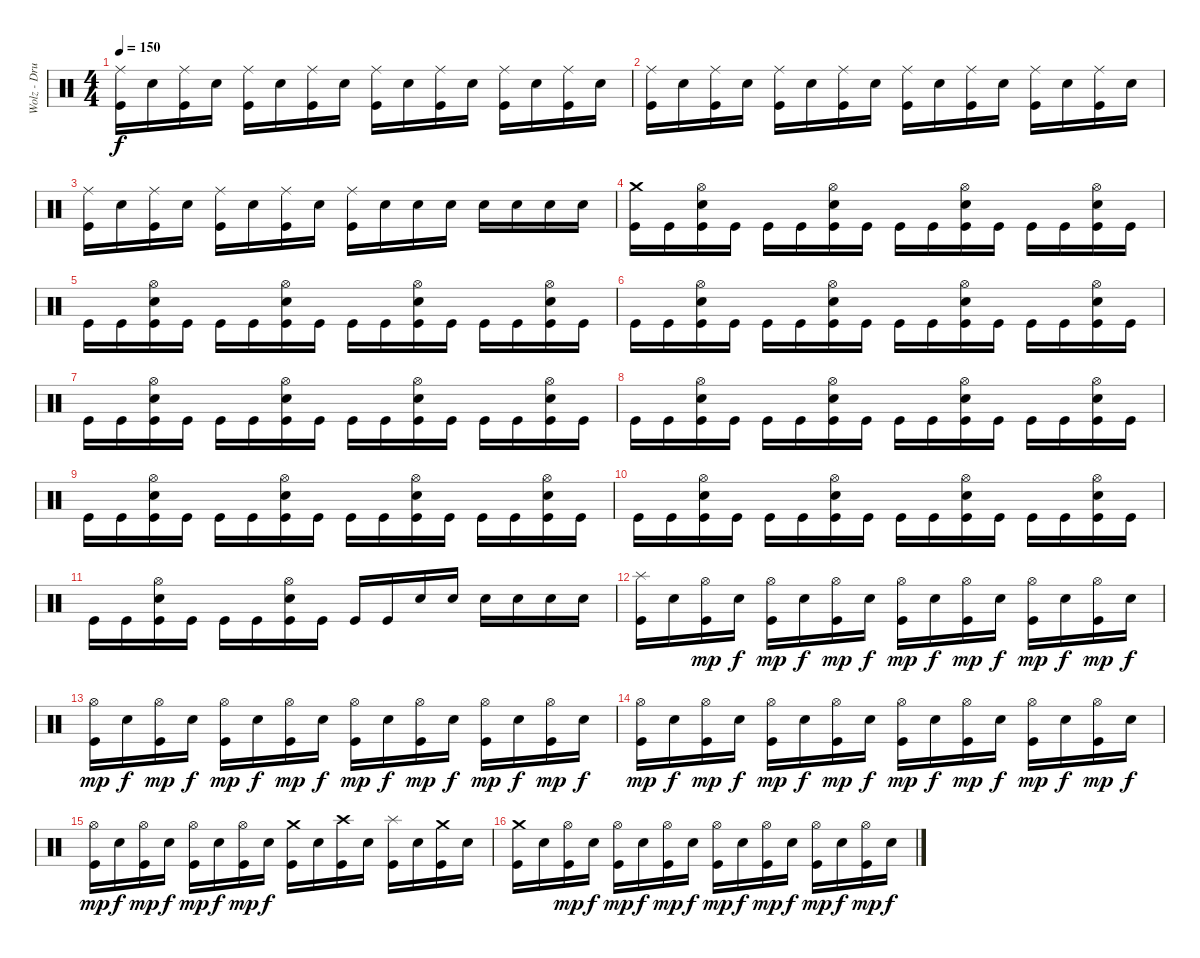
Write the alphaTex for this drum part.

\track ("Wolz - Drums" "Wolz - Dru") {instrument percussion}
\staff {score}
\articulation defaults
\ts (4 4)
\tempo 150
\clef neutral
\ks c
("Ride (middle)" "Kick (hit)").16{dy f} "Electric Snare (hit)".16 ("Ride (middle)" "Kick (hit)").16 "Electric Snare (hit)".16 ("Ride (middle)" "Kick (hit)").16 "Electric Snare (hit)".16 ("Ride (middle)" "Kick (hit)").16 "Electric Snare (hit)".16 ("Ride (middle)" "Kick (hit)").16 "Electric Snare (hit)".16 ("Ride (middle)" "Kick (hit)").16 "Electric Snare (hit)".16 ("Ride (middle)" "Kick (hit)").16 "Electric Snare (hit)".16 ("Ride (middle)" "Kick (hit)").16 "Electric Snare (hit)".16 |
("Ride (middle)" "Kick (hit)").16 "Electric Snare (hit)".16 ("Ride (middle)" "Kick (hit)").16 "Electric Snare (hit)".16 ("Ride (middle)" "Kick (hit)").16 "Electric Snare (hit)".16 ("Ride (middle)" "Kick (hit)").16 "Electric Snare (hit)".16 ("Ride (middle)" "Kick (hit)").16 "Electric Snare (hit)".16 ("Ride (middle)" "Kick (hit)").16 "Electric Snare (hit)".16 ("Ride (middle)" "Kick (hit)").16 "Electric Snare (hit)".16 ("Ride (middle)" "Kick (hit)").16 "Electric Snare (hit)".16 |
("Ride (middle)" "Kick (hit)").16 "Electric Snare (hit)".16 ("Ride (middle)" "Kick (hit)").16 "Electric Snare (hit)".16 ("Ride (middle)" "Kick (hit)").16 "Electric Snare (hit)".16 ("Ride (middle)" "Kick (hit)").16 "Electric Snare (hit)".16 ("Ride (middle)" "Kick (hit)").16 "Electric Snare (hit)".16 "Electric Snare (hit)".16 "Electric Snare (hit)".16 "Electric Snare (hit)".16 "Electric Snare (hit)".16 "Electric Snare (hit)".16 "Electric Snare (hit)".16 |
("Crash medium (hit)" "Kick (hit)").16 "Kick (hit)".16 ("Hi-Hat (open)" "Electric Snare (hit)" "Kick (hit)").16 "Kick (hit)".16 "Kick (hit)".16 "Kick (hit)".16 ("Hi-Hat (open)" "Electric Snare (hit)" "Kick (hit)").16 "Kick (hit)".16 "Kick (hit)".16 "Kick (hit)".16 ("Hi-Hat (open)" "Electric Snare (hit)" "Kick (hit)").16 "Kick (hit)".16 "Kick (hit)".16 "Kick (hit)".16 ("Hi-Hat (open)" "Electric Snare (hit)" "Kick (hit)").16 "Kick (hit)".16 |
"Kick (hit)".16 "Kick (hit)".16 ("Hi-Hat (open)" "Electric Snare (hit)" "Kick (hit)").16 "Kick (hit)".16 "Kick (hit)".16 "Kick (hit)".16 ("Hi-Hat (open)" "Electric Snare (hit)" "Kick (hit)").16 "Kick (hit)".16 "Kick (hit)".16 "Kick (hit)".16 ("Hi-Hat (open)" "Electric Snare (hit)" "Kick (hit)").16 "Kick (hit)".16 "Kick (hit)".16 "Kick (hit)".16 ("Hi-Hat (open)" "Electric Snare (hit)" "Kick (hit)").16 "Kick (hit)".16 |
"Kick (hit)".16 "Kick (hit)".16 ("Hi-Hat (open)" "Electric Snare (hit)" "Kick (hit)").16 "Kick (hit)".16 "Kick (hit)".16 "Kick (hit)".16 ("Hi-Hat (open)" "Electric Snare (hit)" "Kick (hit)").16 "Kick (hit)".16 "Kick (hit)".16 "Kick (hit)".16 ("Hi-Hat (open)" "Electric Snare (hit)" "Kick (hit)").16 "Kick (hit)".16 "Kick (hit)".16 "Kick (hit)".16 ("Hi-Hat (open)" "Electric Snare (hit)" "Kick (hit)").16 "Kick (hit)".16 |
"Kick (hit)".16 "Kick (hit)".16 ("Hi-Hat (open)" "Electric Snare (hit)" "Kick (hit)").16 "Kick (hit)".16 "Kick (hit)".16 "Kick (hit)".16 ("Hi-Hat (open)" "Electric Snare (hit)" "Kick (hit)").16 "Kick (hit)".16 "Kick (hit)".16 "Kick (hit)".16 ("Hi-Hat (open)" "Electric Snare (hit)" "Kick (hit)").16 "Kick (hit)".16 "Kick (hit)".16 "Kick (hit)".16 ("Hi-Hat (open)" "Electric Snare (hit)" "Kick (hit)").16 "Kick (hit)".16 |
"Kick (hit)".16 "Kick (hit)".16 ("Hi-Hat (open)" "Electric Snare (hit)" "Kick (hit)").16 "Kick (hit)".16 "Kick (hit)".16 "Kick (hit)".16 ("Hi-Hat (open)" "Electric Snare (hit)" "Kick (hit)").16 "Kick (hit)".16 "Kick (hit)".16 "Kick (hit)".16 ("Hi-Hat (open)" "Electric Snare (hit)" "Kick (hit)").16 "Kick (hit)".16 "Kick (hit)".16 "Kick (hit)".16 ("Hi-Hat (open)" "Electric Snare (hit)" "Kick (hit)").16 "Kick (hit)".16 |
"Kick (hit)".16 "Kick (hit)".16 ("Hi-Hat (open)" "Electric Snare (hit)" "Kick (hit)").16 "Kick (hit)".16 "Kick (hit)".16 "Kick (hit)".16 ("Hi-Hat (open)" "Electric Snare (hit)" "Kick (hit)").16 "Kick (hit)".16 "Kick (hit)".16 "Kick (hit)".16 ("Hi-Hat (open)" "Electric Snare (hit)" "Kick (hit)").16 "Kick (hit)".16 "Kick (hit)".16 "Kick (hit)".16 ("Hi-Hat (open)" "Electric Snare (hit)" "Kick (hit)").16 "Kick (hit)".16 |
"Kick (hit)".16 "Kick (hit)".16 ("Hi-Hat (open)" "Electric Snare (hit)" "Kick (hit)").16 "Kick (hit)".16 "Kick (hit)".16 "Kick (hit)".16 ("Hi-Hat (open)" "Electric Snare (hit)" "Kick (hit)").16 "Kick (hit)".16 "Kick (hit)".16 "Kick (hit)".16 ("Hi-Hat (open)" "Electric Snare (hit)" "Kick (hit)").16 "Kick (hit)".16 "Kick (hit)".16 "Kick (hit)".16 ("Hi-Hat (open)" "Electric Snare (hit)" "Kick (hit)").16 "Kick (hit)".16 |
"Kick (hit)".16 "Kick (hit)".16 ("Hi-Hat (open)" "Electric Snare (hit)" "Kick (hit)").16 "Kick (hit)".16 "Kick (hit)".16 "Kick (hit)".16 ("Hi-Hat (open)" "Electric Snare (hit)" "Kick (hit)").16 "Kick (hit)".16 "Kick (hit)".16 "Kick (hit)".16 "Electric Snare (hit)".16 "Electric Snare (hit)".16 "Electric Snare (hit)".16 "Electric Snare (hit)".16 "Electric Snare (hit)".16 "Electric Snare (hit)".16 |
("Splash (hit)" "Kick (hit)").16 "Electric Snare (hit)".16 ("Hi-Hat (open)" "Kick (hit)").16{dy mp} "Electric Snare (hit)".16{dy f} ("Hi-Hat (open)" "Kick (hit)").16{dy mp} "Electric Snare (hit)".16{dy f} ("Hi-Hat (open)" "Kick (hit)").16{dy mp} "Electric Snare (hit)".16{dy f} ("Hi-Hat (open)" "Kick (hit)").16{dy mp} "Electric Snare (hit)".16{dy f} ("Hi-Hat (open)" "Kick (hit)").16{dy mp} "Electric Snare (hit)".16{dy f} ("Hi-Hat (open)" "Kick (hit)").16{dy mp} "Electric Snare (hit)".16{dy f} ("Hi-Hat (open)" "Kick (hit)").16{dy mp} "Electric Snare (hit)".16{dy f} |
("Hi-Hat (open)" "Kick (hit)").16{dy mp} "Electric Snare (hit)".16{dy f} ("Hi-Hat (open)" "Kick (hit)").16{dy mp} "Electric Snare (hit)".16{dy f} ("Hi-Hat (open)" "Kick (hit)").16{dy mp} "Electric Snare (hit)".16{dy f} ("Hi-Hat (open)" "Kick (hit)").16{dy mp} "Electric Snare (hit)".16{dy f} ("Hi-Hat (open)" "Kick (hit)").16{dy mp} "Electric Snare (hit)".16{dy f} ("Hi-Hat (open)" "Kick (hit)").16{dy mp} "Electric Snare (hit)".16{dy f} ("Hi-Hat (open)" "Kick (hit)").16{dy mp} "Electric Snare (hit)".16{dy f} ("Hi-Hat (open)" "Kick (hit)").16{dy mp} "Electric Snare (hit)".16{dy f} |
("Hi-Hat (open)" "Kick (hit)").16{dy mp} "Electric Snare (hit)".16{dy f} ("Hi-Hat (open)" "Kick (hit)").16{dy mp} "Electric Snare (hit)".16{dy f} ("Hi-Hat (open)" "Kick (hit)").16{dy mp} "Electric Snare (hit)".16{dy f} ("Hi-Hat (open)" "Kick (hit)").16{dy mp} "Electric Snare (hit)".16{dy f} ("Hi-Hat (open)" "Kick (hit)").16{dy mp} "Electric Snare (hit)".16{dy f} ("Hi-Hat (open)" "Kick (hit)").16{dy mp} "Electric Snare (hit)".16{dy f} ("Hi-Hat (open)" "Kick (hit)").16{dy mp} "Electric Snare (hit)".16{dy f} ("Hi-Hat (open)" "Kick (hit)").16{dy mp} "Electric Snare (hit)".16{dy f} |
("Hi-Hat (open)" "Kick (hit)").16{dy mp} "Electric Snare (hit)".16{dy f} ("Hi-Hat (open)" "Kick (hit)").16{dy mp} "Electric Snare (hit)".16{dy f} ("Hi-Hat (open)" "Kick (hit)").16{dy mp} "Electric Snare (hit)".16{dy f} ("Hi-Hat (open)" "Kick (hit)").16{dy mp} "Electric Snare (hit)".16{dy f} ("Crash medium (hit)" "Kick (hit)").16 "Electric Snare (hit)".16 ("Crash high (hit)" "Kick (hit)").16 "Electric Snare (hit)".16 ("Splash (hit)" "Kick (hit)").16 "Electric Snare (hit)".16 ("Crash medium (hit)" "Kick (hit)").16 "Electric Snare (hit)".16 |
("Crash medium (hit)" "Kick (hit)").16 "Electric Snare (hit)".16 ("Hi-Hat (open)" "Kick (hit)").16{dy mp} "Electric Snare (hit)".16{dy f} ("Hi-Hat (open)" "Kick (hit)").16{dy mp} "Electric Snare (hit)".16{dy f} ("Hi-Hat (open)" "Kick (hit)").16{dy mp} "Electric Snare (hit)".16{dy f} ("Hi-Hat (open)" "Kick (hit)").16{dy mp} "Electric Snare (hit)".16{dy f} ("Hi-Hat (open)" "Kick (hit)").16{dy mp} "Electric Snare (hit)".16{dy f} ("Hi-Hat (open)" "Kick (hit)").16{dy mp} "Electric Snare (hit)".16{dy f} ("Hi-Hat (open)" "Kick (hit)").16{dy mp} "Electric Snare (hit)".16{dy f}
